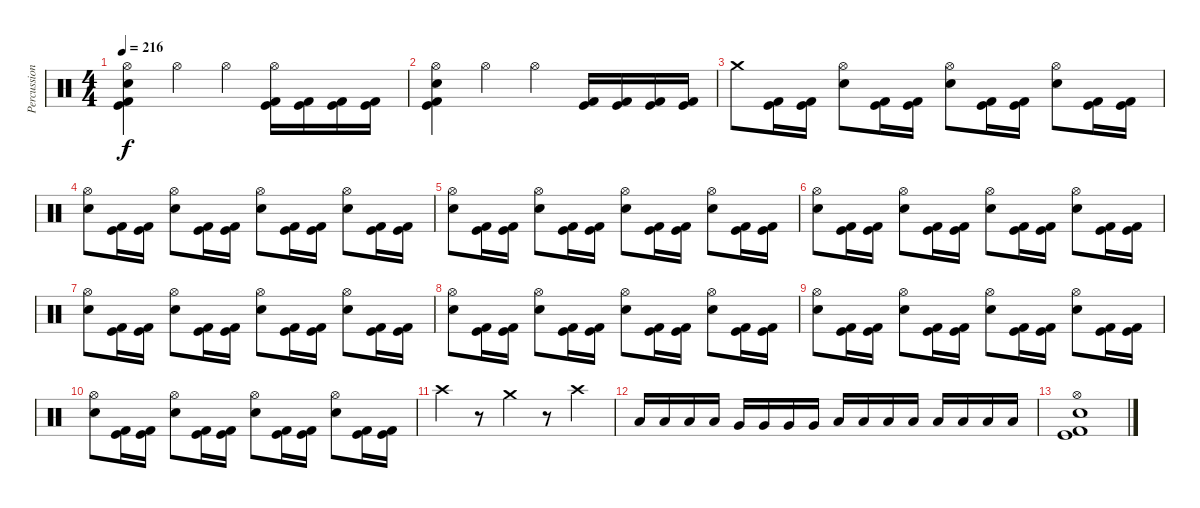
\track ("Percussion" "Percussion") {instrument percussion}
\staff {score}
\articulation defaults
\ts (4 4)
\tempo 216
\clef neutral
\ks c
("Hi-Hat (open)" "Electric Snare (hit)" "Kick (hit)" "Kick (hit) 2").4{dy f} "Hi-Hat (open)".4 "Hi-Hat (open)".4 ("Hi-Hat (open)" "Kick (hit)" "Kick (hit) 2").16 ("Kick (hit)" "Kick (hit) 2").16 ("Kick (hit)" "Kick (hit) 2").16 ("Kick (hit)" "Kick (hit) 2").16 |
("Hi-Hat (open)" "Electric Snare (hit)" "Kick (hit)" "Kick (hit) 2").4 "Hi-Hat (open)".4 "Hi-Hat (open)".4 ("Kick (hit)" "Kick (hit) 2").16 ("Kick (hit)" "Kick (hit) 2").16 ("Kick (hit)" "Kick (hit) 2").16 ("Kick (hit)" "Kick (hit) 2").16 |
"Crash medium (hit)".8 ("Kick (hit)" "Kick (hit) 2").16 ("Kick (hit)" "Kick (hit) 2").16 ("Hi-Hat (open)" "Electric Snare (hit)").8 ("Kick (hit)" "Kick (hit) 2").16 ("Kick (hit)" "Kick (hit) 2").16 ("Hi-Hat (open)" "Electric Snare (hit)").8 ("Kick (hit)" "Kick (hit) 2").16 ("Kick (hit)" "Kick (hit) 2").16 ("Hi-Hat (open)" "Electric Snare (hit)").8 ("Kick (hit)" "Kick (hit) 2").16 ("Kick (hit)" "Kick (hit) 2").16 |
("Hi-Hat (open)" "Electric Snare (hit)").8 ("Kick (hit)" "Kick (hit) 2").16 ("Kick (hit)" "Kick (hit) 2").16 ("Hi-Hat (open)" "Electric Snare (hit)").8 ("Kick (hit)" "Kick (hit) 2").16 ("Kick (hit)" "Kick (hit) 2").16 ("Hi-Hat (open)" "Electric Snare (hit)").8 ("Kick (hit)" "Kick (hit) 2").16 ("Kick (hit)" "Kick (hit) 2").16 ("Hi-Hat (open)" "Electric Snare (hit)").8 ("Kick (hit)" "Kick (hit) 2").16 ("Kick (hit)" "Kick (hit) 2").16 |
("Hi-Hat (open)" "Electric Snare (hit)").8 ("Kick (hit)" "Kick (hit) 2").16 ("Kick (hit)" "Kick (hit) 2").16 ("Hi-Hat (open)" "Electric Snare (hit)").8 ("Kick (hit)" "Kick (hit) 2").16 ("Kick (hit)" "Kick (hit) 2").16 ("Hi-Hat (open)" "Electric Snare (hit)").8 ("Kick (hit)" "Kick (hit) 2").16 ("Kick (hit)" "Kick (hit) 2").16 ("Hi-Hat (open)" "Electric Snare (hit)").8 ("Kick (hit)" "Kick (hit) 2").16 ("Kick (hit)" "Kick (hit) 2").16 |
("Hi-Hat (open)" "Electric Snare (hit)").8 ("Kick (hit)" "Kick (hit) 2").16 ("Kick (hit)" "Kick (hit) 2").16 ("Hi-Hat (open)" "Electric Snare (hit)").8 ("Kick (hit)" "Kick (hit) 2").16 ("Kick (hit)" "Kick (hit) 2").16 ("Hi-Hat (open)" "Electric Snare (hit)").8 ("Kick (hit)" "Kick (hit) 2").16 ("Kick (hit)" "Kick (hit) 2").16 ("Hi-Hat (open)" "Electric Snare (hit)").8 ("Kick (hit)" "Kick (hit) 2").16 ("Kick (hit)" "Kick (hit) 2").16 |
("Hi-Hat (open)" "Electric Snare (hit)").8 ("Kick (hit)" "Kick (hit) 2").16 ("Kick (hit)" "Kick (hit) 2").16 ("Hi-Hat (open)" "Electric Snare (hit)").8 ("Kick (hit)" "Kick (hit) 2").16 ("Kick (hit)" "Kick (hit) 2").16 ("Hi-Hat (open)" "Electric Snare (hit)").8 ("Kick (hit)" "Kick (hit) 2").16 ("Kick (hit)" "Kick (hit) 2").16 ("Hi-Hat (open)" "Electric Snare (hit)").8 ("Kick (hit)" "Kick (hit) 2").16 ("Kick (hit)" "Kick (hit) 2").16 |
("Hi-Hat (open)" "Electric Snare (hit)").8 ("Kick (hit)" "Kick (hit) 2").16 ("Kick (hit)" "Kick (hit) 2").16 ("Hi-Hat (open)" "Electric Snare (hit)").8 ("Kick (hit)" "Kick (hit) 2").16 ("Kick (hit)" "Kick (hit) 2").16 ("Hi-Hat (open)" "Electric Snare (hit)").8 ("Kick (hit)" "Kick (hit) 2").16 ("Kick (hit)" "Kick (hit) 2").16 ("Hi-Hat (open)" "Electric Snare (hit)").8 ("Kick (hit)" "Kick (hit) 2").16 ("Kick (hit)" "Kick (hit) 2").16 |
("Hi-Hat (open)" "Electric Snare (hit)").8 ("Kick (hit)" "Kick (hit) 2").16 ("Kick (hit)" "Kick (hit) 2").16 ("Hi-Hat (open)" "Electric Snare (hit)").8 ("Kick (hit)" "Kick (hit) 2").16 ("Kick (hit)" "Kick (hit) 2").16 ("Hi-Hat (open)" "Electric Snare (hit)").8 ("Kick (hit)" "Kick (hit) 2").16 ("Kick (hit)" "Kick (hit) 2").16 ("Hi-Hat (open)" "Electric Snare (hit)").8 ("Kick (hit)" "Kick (hit) 2").16 ("Kick (hit)" "Kick (hit) 2").16 |
("Hi-Hat (open)" "Electric Snare (hit)").8 ("Kick (hit)" "Kick (hit) 2").16 ("Kick (hit)" "Kick (hit) 2").16 ("Hi-Hat (open)" "Electric Snare (hit)").8 ("Kick (hit)" "Kick (hit) 2").16 ("Kick (hit)" "Kick (hit) 2").16 ("Hi-Hat (open)" "Electric Snare (hit)").8 ("Kick (hit)" "Kick (hit) 2").16 ("Kick (hit)" "Kick (hit) 2").16 ("Hi-Hat (open)" "Electric Snare (hit)").8 ("Kick (hit)" "Kick (hit) 2").16 ("Kick (hit)" "Kick (hit) 2").16 |
"Crash high (hit)".4 r.8 "Crash medium (hit)".4 r.8 "Crash high (hit)".4 |
"Low Tom (hit)".16 "Low Tom (hit)".16 "Low Tom (hit)".16 "Low Tom (hit)".16 "Very Low Tom (hit)".16 "Very Low Tom (hit)".16 "Very Low Tom (hit)".16 "Very Low Tom (hit)".16 "Low Tom (hit)".16 "Low Tom (hit)".16 "Low Tom (hit)".16 "Low Tom (hit)".16 "Low Floor Tom (hit)".16 "Low Floor Tom (hit)".16 "Low Floor Tom (hit)".16 "Low Floor Tom (hit)".16 |
("Hi-Hat (open)" "Electric Snare (hit)" "Kick (hit)" "Kick (hit) 2").1
